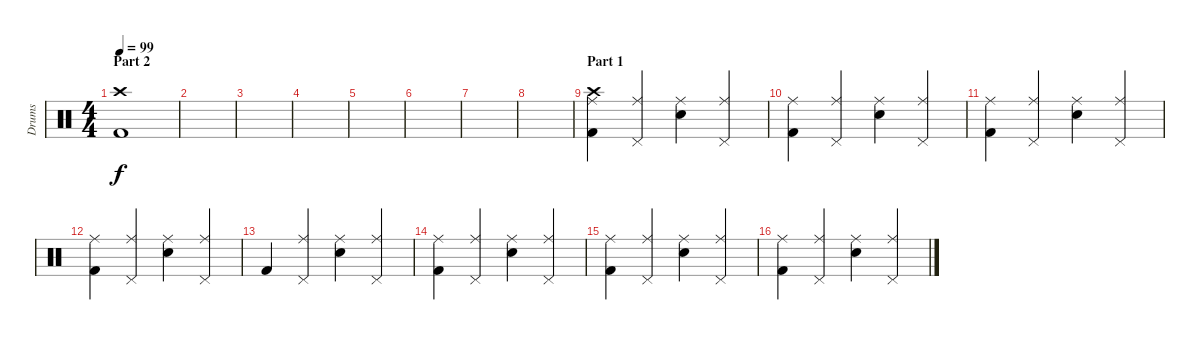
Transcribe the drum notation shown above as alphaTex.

\track ("Drums" "Drums") {instrument percussion}
\staff {score}
\articulation defaults
\ts (4 4)
\section ("" "Part 2")
\tempo 99
\clef neutral
\ks c
("Crash high (hit)" "Kick (hit) 2").1{dy f} |
|
|
|
|
|
|
|
\section ("" "Part 1")
("Ride (middle)" "Crash high (hit)" "Kick (hit) 2").4 ("Ride (middle)" "Pedal Hi-Hat (hit)").4 ("Ride (middle)" "Snare (hit) 2").4 ("Ride (middle)" "Pedal Hi-Hat (hit)").4 |
("Ride (middle)" "Kick (hit) 2").4 ("Ride (middle)" "Pedal Hi-Hat (hit)").4 ("Ride (middle)" "Snare (hit) 2").4 ("Ride (middle)" "Pedal Hi-Hat (hit)").4 |
("Ride (middle)" "Kick (hit) 2").4 ("Ride (middle)" "Pedal Hi-Hat (hit)").4 ("Ride (middle)" "Snare (hit) 2").4 ("Ride (middle)" "Pedal Hi-Hat (hit)").4 |
("Ride (middle)" "Kick (hit) 2").4 ("Ride (middle)" "Pedal Hi-Hat (hit)").4 ("Ride (middle)" "Snare (hit) 2").4 ("Ride (middle)" "Pedal Hi-Hat (hit)").4 |
"Kick (hit) 2".4 ("Ride (middle)" "Pedal Hi-Hat (hit)").4 ("Ride (middle)" "Snare (hit) 2").4 ("Ride (middle)" "Pedal Hi-Hat (hit)").4 |
("Ride (middle)" "Kick (hit) 2").4 ("Ride (middle)" "Pedal Hi-Hat (hit)").4 ("Ride (middle)" "Snare (hit) 2").4 ("Ride (middle)" "Pedal Hi-Hat (hit)").4 |
("Ride (middle)" "Kick (hit) 2").4 ("Ride (middle)" "Pedal Hi-Hat (hit)").4 ("Ride (middle)" "Snare (hit) 2").4 ("Ride (middle)" "Pedal Hi-Hat (hit)").4 |
("Ride (middle)" "Kick (hit) 2").4 ("Ride (middle)" "Pedal Hi-Hat (hit)").4 ("Ride (middle)" "Snare (hit) 2").4 ("Ride (middle)" "Pedal Hi-Hat (hit)").4
